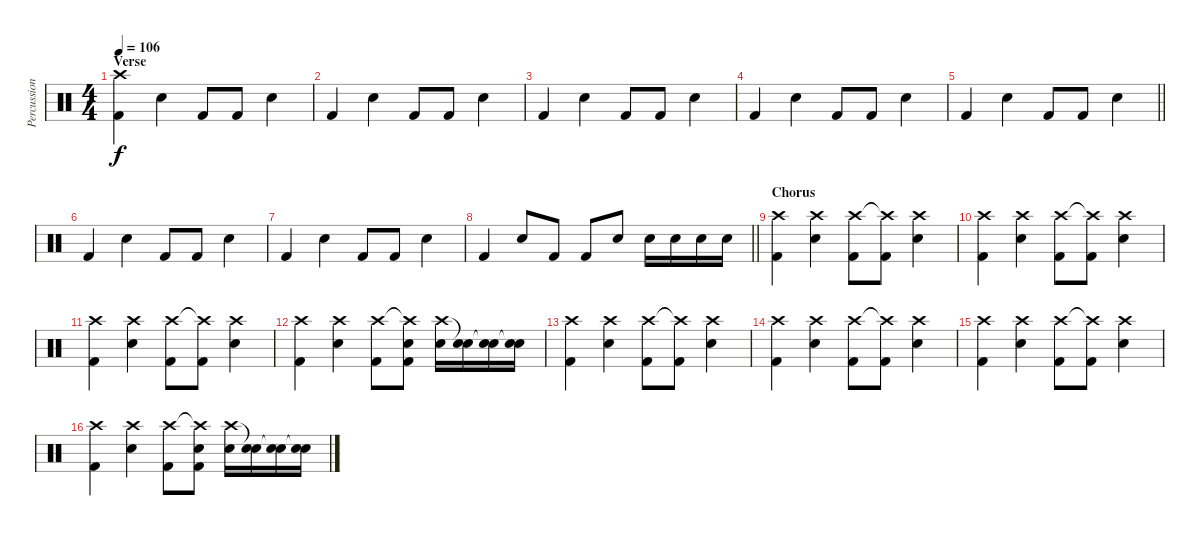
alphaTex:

\track ("Percussion" "Percussion") {instrument percussion}
\staff {score}
\articulation defaults
\ts (4 4)
\section ("" "Verse")
\tempo 106
\clef neutral
\ks c
("Crash high (hit)" "Kick (hit) 2").4{dy f} "Electric Snare (hit)".4 "Kick (hit) 2".8 "Kick (hit) 2".8 "Electric Snare (hit)".4 |
"Kick (hit) 2".4 "Electric Snare (hit)".4 "Kick (hit) 2".8 "Kick (hit) 2".8 "Electric Snare (hit)".4 |
"Kick (hit) 2".4 "Electric Snare (hit)".4 "Kick (hit) 2".8 "Kick (hit) 2".8 "Electric Snare (hit)".4 |
"Kick (hit) 2".4 "Electric Snare (hit)".4 "Kick (hit) 2".8 "Kick (hit) 2".8 "Electric Snare (hit)".4 |
\barLineRight lightlight "Kick (hit) 2".4 "Electric Snare (hit)".4 "Kick (hit) 2".8 "Kick (hit) 2".8 "Electric Snare (hit)".4
|
"Kick (hit) 2".4 "Electric Snare (hit)".4 "Kick (hit) 2".8 "Kick (hit) 2".8 "Electric Snare (hit)".4 |
"Kick (hit) 2".4 "Electric Snare (hit)".4 "Kick (hit) 2".8 "Kick (hit) 2".8 "Electric Snare (hit)".4 |
\barLineRight lightlight "Kick (hit) 2".4 "Electric Snare (hit)".8 "Kick (hit) 2".8 "Kick (hit) 2".8 "Electric Snare (hit)".8 "Electric Snare (hit)".16 "Electric Snare (hit)".16 "Electric Snare (hit)".16 "Electric Snare (hit)".16
|
\section ("" "Chorus")
("Crash high (hit)" "Kick (hit) 2").4 ("Crash high (hit)" "Electric Snare (hit)").4 ("Crash high (hit)" "Kick (hit) 2").8 ("Crash high (hit)"{t} "Kick (hit) 2").8 ("Crash high (hit)" "Electric Snare (hit)").4 |
("Crash high (hit)" "Kick (hit) 2").4 ("Crash high (hit)" "Electric Snare (hit)").4 ("Crash high (hit)" "Kick (hit) 2").8 ("Crash high (hit)"{t} "Kick (hit) 2").8 ("Crash high (hit)" "Electric Snare (hit)").4 |
("Crash high (hit)" "Kick (hit) 2").4 ("Crash high (hit)" "Electric Snare (hit)").4 ("Crash high (hit)" "Kick (hit) 2").8 ("Crash high (hit)"{t} "Kick (hit) 2").8 ("Crash high (hit)" "Electric Snare (hit)").4 |
("Crash high (hit)" "Kick (hit) 2").4 ("Crash high (hit)" "Electric Snare (hit)").4 ("Crash high (hit)" "Kick (hit) 2").8 ("Crash high (hit)"{t} "Electric Snare (hit)" "Kick (hit) 2").8 ("Crash high (hit)" "Electric Snare (hit)").16 ("Snare (hit)"{t} "Electric Snare (hit)").16 ("Snare (hit)"{t} "Electric Snare (hit)").16 ("Snare (hit)"{t} "Electric Snare (hit)").16 |
("Crash high (hit)" "Kick (hit) 2").4 ("Crash high (hit)" "Electric Snare (hit)").4 ("Crash high (hit)" "Kick (hit) 2").8 ("Crash high (hit)"{t} "Kick (hit) 2").8 ("Crash high (hit)" "Electric Snare (hit)").4 |
("Crash high (hit)" "Kick (hit) 2").4 ("Crash high (hit)" "Electric Snare (hit)").4 ("Crash high (hit)" "Kick (hit) 2").8 ("Crash high (hit)"{t} "Kick (hit) 2").8 ("Crash high (hit)" "Electric Snare (hit)").4 |
("Crash high (hit)" "Kick (hit) 2").4 ("Crash high (hit)" "Electric Snare (hit)").4 ("Crash high (hit)" "Kick (hit) 2").8 ("Crash high (hit)"{t} "Kick (hit) 2").8 ("Crash high (hit)" "Electric Snare (hit)").4 |
("Crash high (hit)" "Kick (hit) 2").4 ("Crash high (hit)" "Electric Snare (hit)").4 ("Crash high (hit)" "Kick (hit) 2").8 ("Crash high (hit)"{t} "Electric Snare (hit)" "Kick (hit) 2").8 ("Crash high (hit)" "Electric Snare (hit)").16 ("Snare (hit)"{t} "Electric Snare (hit)").16 ("Snare (hit)"{t} "Electric Snare (hit)").16 ("Snare (hit)"{t} "Electric Snare (hit)").16
